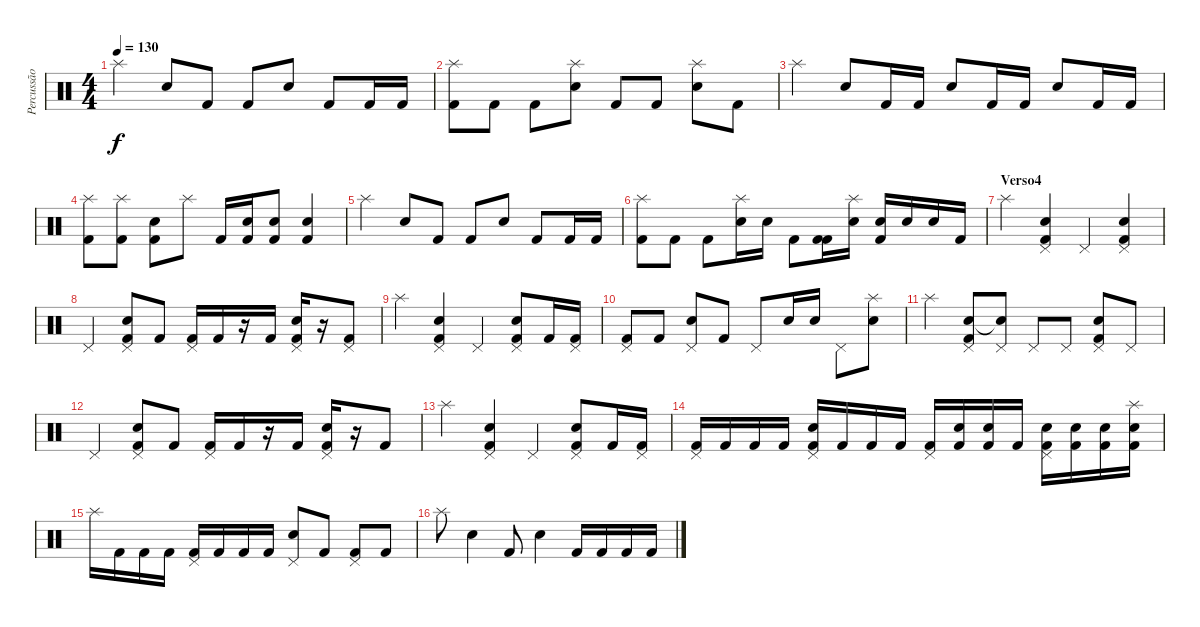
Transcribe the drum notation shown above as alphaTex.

\track ("Percussão" "Percussão") {instrument percussion}
\staff {score}
\articulation defaults
\ts (4 4)
\tempo 130
\clef neutral
\ks c "Splash (hit)".4{dy f} "Snare (hit) 2".8 "Kick (hit) 2".8 "Kick (hit) 2".8 "Snare (hit) 2".8 "Kick (hit) 2".8 "Kick (hit) 2".16 "Kick (hit) 2".16
|
("Kick (hit) 2" "Splash (hit)").8 "Kick (hit) 2".8 "Kick (hit) 2".8 ("Snare (hit) 2" "Splash (hit)").8 "Kick (hit) 2".8 "Kick (hit) 2".8 ("Snare (hit) 2" "Splash (hit)").8 "Kick (hit) 2".8 |
"Splash (hit)".4 "Snare (hit) 2".8 "Kick (hit) 2".16 "Kick (hit) 2".16 "Snare (hit) 2".8 "Kick (hit) 2".16 "Kick (hit) 2".16 "Snare (hit) 2".8 "Kick (hit) 2".16 "Kick (hit) 2".16 |
("Kick (hit) 2" "Splash (hit)").8 ("Kick (hit) 2" "Splash (hit)").8 ("Kick (hit) 2" "Snare (hit) 2").8 "Splash (hit)".8 "Kick (hit) 2".16 ("Kick (hit) 2" "Snare (hit) 2").16 ("Kick (hit) 2" "Snare (hit) 2").8 ("Kick (hit) 2" "Snare (hit) 2").4 |
"Splash (hit)".4 "Snare (hit) 2".8 "Kick (hit) 2".8 "Kick (hit) 2".8 "Snare (hit) 2".8 "Kick (hit) 2".8 "Kick (hit) 2".16 "Kick (hit) 2".16 |
("Kick (hit) 2" "Splash (hit)").8 "Kick (hit) 2".8 "Kick (hit) 2".8 ("Snare (hit) 2" "Splash (hit)").16 "Snare (hit) 2".16 "Kick (hit) 2".8 ("Kick (hit) 2" "Kick (hit) 2").16 ("Snare (hit) 2" "Splash (hit)").16 ("Kick (hit) 2" "Snare (hit) 2").16 "Snare (hit) 2".16 "Snare (hit) 2".16 "Kick (hit) 2".16 |
\section ("" "Verso4")
"Splash (hit)".4 ("Kick (hit) 2" "Snare (hit) 2" "Pedal Hi-Hat (hit)").4 "Pedal Hi-Hat (hit)".4 ("Kick (hit) 2" "Snare (hit) 2" "Pedal Hi-Hat (hit)").4 |
"Pedal Hi-Hat (hit)".4 ("Kick (hit) 2" "Snare (hit) 2" "Pedal Hi-Hat (hit)").8 "Kick (hit) 2".8 ("Kick (hit) 2" "Pedal Hi-Hat (hit)").16 "Kick (hit) 2".16 r.16 "Kick (hit) 2".16 ("Kick (hit) 2" "Snare (hit) 2" "Pedal Hi-Hat (hit)").16 r.16 ("Kick (hit) 2" "Pedal Hi-Hat (hit)").8 |
"Splash (hit)".4 ("Kick (hit) 2" "Snare (hit) 2" "Pedal Hi-Hat (hit)").4 "Pedal Hi-Hat (hit)".4 ("Kick (hit) 2" "Snare (hit) 2" "Pedal Hi-Hat (hit)").8 "Kick (hit) 2".16 ("Kick (hit) 2" "Pedal Hi-Hat (hit)").16 |
("Kick (hit) 2" "Pedal Hi-Hat (hit)").8 "Kick (hit) 2".8 ("Snare (hit) 2" "Pedal Hi-Hat (hit)").8 "Kick (hit) 2".8 "Pedal Hi-Hat (hit)".8 "Snare (hit) 2".16 "Snare (hit) 2".16 "Pedal Hi-Hat (hit)".8 ("Snare (hit) 2" "Splash (hit)").8 |
"Splash (hit)".4 ("Kick (hit) 2" "Snare (hit) 2" "Pedal Hi-Hat (hit)").8 ("Pedal Hi-Hat (hit)" "Snare (hit)"{t}).8 "Pedal Hi-Hat (hit)".8 "Pedal Hi-Hat (hit)".8 ("Kick (hit) 2" "Snare (hit) 2" "Pedal Hi-Hat (hit)").8 "Pedal Hi-Hat (hit)".8 |
"Pedal Hi-Hat (hit)".4 ("Kick (hit) 2" "Snare (hit) 2" "Pedal Hi-Hat (hit)").8 "Kick (hit) 2".8 ("Kick (hit) 2" "Pedal Hi-Hat (hit)").16 "Kick (hit) 2".16 r.16 "Kick (hit) 2".16 ("Kick (hit) 2" "Snare (hit) 2" "Pedal Hi-Hat (hit)").16 r.16 "Kick (hit) 2".8 |
"Splash (hit)".4 ("Kick (hit) 2" "Snare (hit) 2" "Pedal Hi-Hat (hit)").4 "Pedal Hi-Hat (hit)".4 ("Kick (hit) 2" "Snare (hit) 2" "Pedal Hi-Hat (hit)").8 "Kick (hit) 2".16 ("Kick (hit) 2" "Pedal Hi-Hat (hit)").16 |
("Kick (hit) 2" "Pedal Hi-Hat (hit)").16 "Kick (hit) 2".16 "Kick (hit) 2".16 "Kick (hit) 2".16 ("Kick (hit) 2" "Snare (hit) 2" "Pedal Hi-Hat (hit)").16 "Kick (hit) 2".16 "Kick (hit) 2".16 "Kick (hit) 2".16 ("Kick (hit) 2" "Pedal Hi-Hat (hit)").16 ("Kick (hit) 2" "Snare (hit) 2").16 ("Kick (hit) 2" "Snare (hit) 2").16 "Kick (hit) 2".16 ("Kick (hit) 2" "Snare (hit) 2" "Pedal Hi-Hat (hit)").16 ("Kick (hit) 2" "Snare (hit) 2").16 ("Kick (hit) 2" "Snare (hit) 2").16 ("Kick (hit) 2" "Snare (hit) 2" "Splash (hit)").16 |
"Splash (hit)".16 "Kick (hit) 2".16 "Kick (hit) 2".16 "Kick (hit) 2".16 ("Kick (hit) 2" "Pedal Hi-Hat (hit)").16 "Kick (hit) 2".16 "Kick (hit) 2".16 "Kick (hit) 2".16 ("Snare (hit) 2" "Pedal Hi-Hat (hit)").8 "Kick (hit) 2".8 ("Kick (hit) 2" "Pedal Hi-Hat (hit)").8 "Kick (hit) 2".8 |
"Splash (hit)".8 "Snare (hit) 2".4 "Kick (hit) 2".8 "Snare (hit) 2".4 "Kick (hit) 2".16 "Kick (hit) 2".16 "Kick (hit) 2".16 "Kick (hit) 2".16
